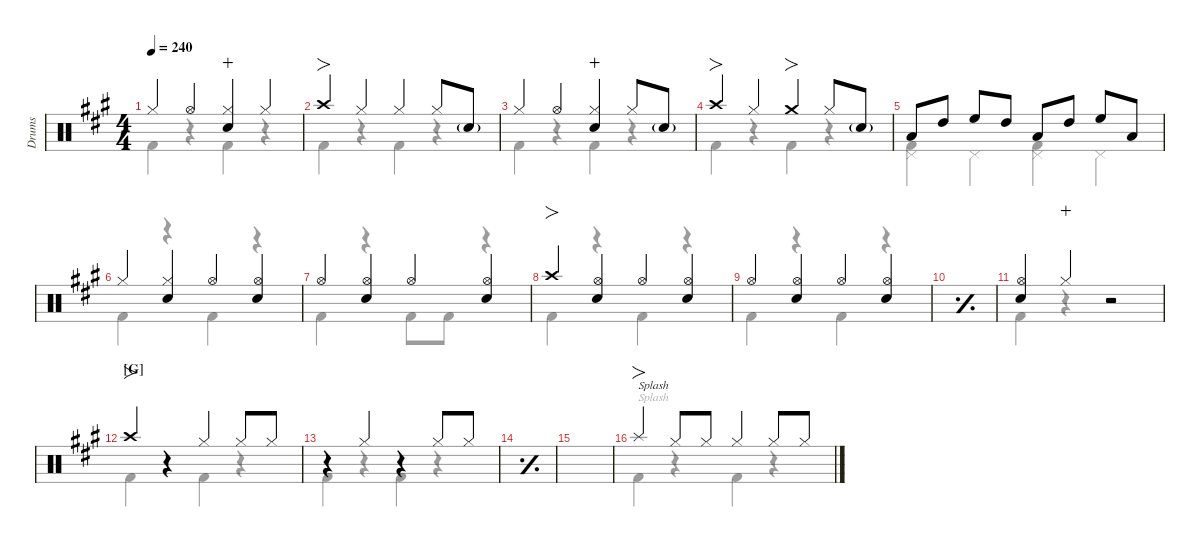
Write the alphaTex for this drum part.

\defaultSystemsLayout 4
\hideDynamics
\bracketExtendMode nobrackets
\otherSystemsTrackNameOrientation horizontal
\track ("Drums" "Drums") {defaultSystemsLayout 4 instrument percussion}
\staff {score}
\articulation defaults
\voice
\ts (4 4)
\tempo 240
\clef neutral
\scale
0.976526
\ks a "Hi-Hat (closed)"{acc forcenatural}.4{dy f beam Up} "Hi-Hat (open)"{acc forcenatural}.4{beam Up}
("Hi-Hat (closed)"{acc forcenatural} "Snare (hit) 2"{acc forcenatural}).4{wahc beam Up} "Hi-Hat (closed)"{acc forcenatural}.4{beam Up} |
\scale
0.976526 "Crash high (hit)"{acc forcenatural}.4{fo beam Up} "Hi-Hat (closed)"{acc forcenatural}.4{beam Up} "Hi-Hat (closed)"{acc forcenatural}.4{beam Up} "Hi-Hat (closed)"{acc forcenatural}.8{beam Up} "Snare (hit) 2"{g acc forcenatural}.8{dy mf beam Up} |
\scale
0.976526 "Hi-Hat (closed)"{acc forcenatural}.4{dy f beam Up} "Hi-Hat (open)"{acc forcenatural}.4{beam Up} ("Hi-Hat (closed)"{acc forcenatural} "Snare (hit) 2"{acc forcenatural}).4{wahc beam Up} "Hi-Hat (closed)"{acc forcenatural}.8{beam Up} "Snare (hit) 2"{g acc forcenatural}.8{dy mf beam Up} |
\scale
1.07042 "Crash high (hit)"{acc forcenatural}.4{fo dy f beam Up} "Hi-Hat (closed)"{acc forcenatural}.4{beam Up} "Crash medium (hit)"{acc forcenatural}.4{fo beam Up} "Hi-Hat (closed)"{acc forcenatural}.8{beam Up} "Snare (hit) 2"{g acc forcenatural}.8{dy mf beam Up} |
\scale
0.976526 "Low Tom (hit)"{acc forcenatural}.8{dy fff beam Up} "High Tom (hit)"{acc forcenatural}.8{beam Up} "High Floor Tom (hit)"{acc forcenatural}.8{beam Up} "High Tom (hit)"{acc forcenatural}.8{beam Up} "Low Tom (hit)"{acc forcenatural}.8{beam Up} "High Tom (hit)"{acc forcenatural}.8{beam Up} "High Floor Tom (hit)"{acc forcenatural}.8{beam Up} "Low Tom (hit)"{acc forcenatural}.8{beam Up} |
\scale
0.976526 "Hi-Hat (closed)"{acc forcenatural}.4{dy f beam Up} ("Snare (hit) 2"{acc forcenatural} "Hi-Hat (closed)"{acc forcenatural}).4{beam Up} "Hi-Hat (open)"{acc forcenatural}.4{beam Up} ("Hi-Hat (open)"{acc forcenatural} "Snare (hit) 2"{acc forcenatural}).4{beam Up} |
\scale
0.976526 "Hi-Hat (open)"{acc forcenatural}.4{beam Up} ("Hi-Hat (open)"{acc forcenatural} "Snare (hit) 2"{acc forcenatural}).4{beam Up} "Hi-Hat (open)"{acc forcenatural}.4{beam Up} ("Hi-Hat (open)"{acc forcenatural} "Snare (hit) 2"{acc forcenatural}).4{beam Up} |
\scale
1.066 "Crash high (hit)"{acc forcenatural}.4{fo beam Up} ("Hi-Hat (open)"{acc forcenatural} "Snare (hit) 2"{acc forcenatural}).4{beam Up} "Hi-Hat (open)"{acc forcenatural}.4{beam Up} ("Hi-Hat (open)"{acc forcenatural} "Snare (hit) 2"{acc forcenatural}).4{beam Up} |
\scale
0.972105 "Hi-Hat (open)"{acc forcenatural}.4{beam Up} ("Hi-Hat (open)"{acc forcenatural} "Snare (hit) 2"{acc forcenatural}).4{beam Up} "Hi-Hat (open)"{acc forcenatural}.4{beam Up} ("Hi-Hat (open)"{acc forcenatural} "Snare (hit) 2"{acc forcenatural}).4{beam Up} |
\simile simple
\scale
0.972105 |
\simile none
\scale
0.98979 ("Hi-Hat (open)"{acc forcenatural} "Snare (hit) 2"{acc forcenatural}).4{beam Up} "Hi-Hat (closed)"{acc forcenatural}.4{wahc beam Up} r.2{beam Up} |
\section ("G" "")
\scale
1.07042 "Crash high (hit)"{acc forcenatural}.4{fo beam Up} r.4{beam Up} "Hi-Hat (closed)"{acc forcenatural}.4{beam Up} "Hi-Hat (closed)"{acc forcenatural}.8{beam Up} "Hi-Hat (closed)"{acc forcenatural}.8{dy mf beam Up} |
\scale
0.976526 r.4{beam Up} "Hi-Hat (closed)"{acc forcenatural}.4{dy f beam Up} r.4{beam Up} "Hi-Hat (closed)"{acc forcenatural}.8{beam Up} "Hi-Hat (closed)"{acc forcenatural}.8{dy mf beam Up} |
\simile simple
\scale
0.976526 |
\scale
0.976526 |
\simile none
\scale
1.07042 "Splash (hit)"{acc forcenatural}.4{fo txt "Splash" dy f beam Up} "Hi-Hat (closed)"{acc forcenatural}.8{beam Up} "Hi-Hat (closed)"{acc forcenatural}.8{dy mf beam Up} "Hi-Hat (closed)"{acc forcenatural}.4{dy f beam Up} "Hi-Hat (closed)"{acc forcenatural}.8{beam Up} "Hi-Hat (closed)"{acc forcenatural}.8{dy mf beam Up}
\voice
\clef neutral
\ottava regular
\simile none
\scale
0.976526
\ks a "Kick (hit) 2"{acc forcenatural}.4{dy f beam Down}
r.4{beam Down} "Kick (hit) 2"{acc forcenatural}.4{beam Down} r.4{beam Down} |
\scale
0.976526 "Kick (hit) 2"{acc forcenatural}.4{beam Down} r.4{beam Down} "Kick (hit) 2"{acc forcenatural}.4{beam Down} r.4{beam Down} |
\scale
0.976526 "Kick (hit) 2"{acc forcenatural}.4{beam Down} r.4{beam Down} "Kick (hit) 2"{acc forcenatural}.4{beam Down} r.4{beam Down} |
\scale
1.07042 "Kick (hit) 2"{acc forcenatural}.4{beam Down} r.4{beam Down} "Kick (hit) 2"{acc forcenatural}.4{beam Down} r.4{beam Down} |
\scale
0.976526 ("Kick (hit) 2"{acc forcenatural} "Pedal Hi-Hat (hit)"{acc forcenatural}).4{beam Down} "Pedal Hi-Hat (hit)"{acc forcenatural}.4{beam Down} ("Kick (hit) 2"{acc forcenatural} "Pedal Hi-Hat (hit)"{acc forcenatural}).4{beam Down} "Pedal Hi-Hat (hit)"{acc forcenatural}.4{beam Down} |
\scale
0.976526 "Kick (hit) 2"{acc forcenatural}.4{beam Down} r.4{beam Down} "Kick (hit) 2"{acc forcenatural}.4{beam Down} r.4{beam Down} |
\scale
0.976526 "Kick (hit) 2"{acc forcenatural}.4{beam Down} r.4{beam Down} "Kick (hit) 2"{acc forcenatural}.8{beam Down} "Kick (hit) 2"{acc forcenatural}.8{beam Down} r.4{beam Down} |
\scale
1.066 "Kick (hit) 2"{acc forcenatural}.4{beam Down} r.4{beam Down} "Kick (hit) 2"{acc forcenatural}.4{beam Down} r.4{beam Down} |
\scale
0.972105 "Kick (hit) 2"{acc forcenatural}.4{beam Down} r.4{beam Down} "Kick (hit) 2"{acc forcenatural}.4{beam Down} r.4{beam Down} |
\simile simple
\scale
0.972105 |
\simile none
\scale
0.98979 "Kick (hit) 2"{acc forcenatural}.4{beam Down} r.4{beam Down} r.2{beam Down} |
\scale
1.07042 "Kick (hit) 2"{acc forcenatural}.4{beam Down} r.4{beam Down} "Kick (hit) 2"{acc forcenatural}.4{beam Down} r.4{beam Down} |
\scale
0.976526 "Kick (hit) 2"{acc forcenatural}.4{beam Down} r.4{beam Down} "Kick (hit) 2"{acc forcenatural}.4{beam Down} r.4{beam Down} |
\simile simple
\scale
0.976526 |
\scale
0.976526 |
\simile none
\scale
1.07042 "Kick (hit) 2"{acc forcenatural}.4{txt "Splash" beam Down} r.4{beam Down} "Kick (hit) 2"{acc forcenatural}.4{beam Down} r.4{beam Down}
